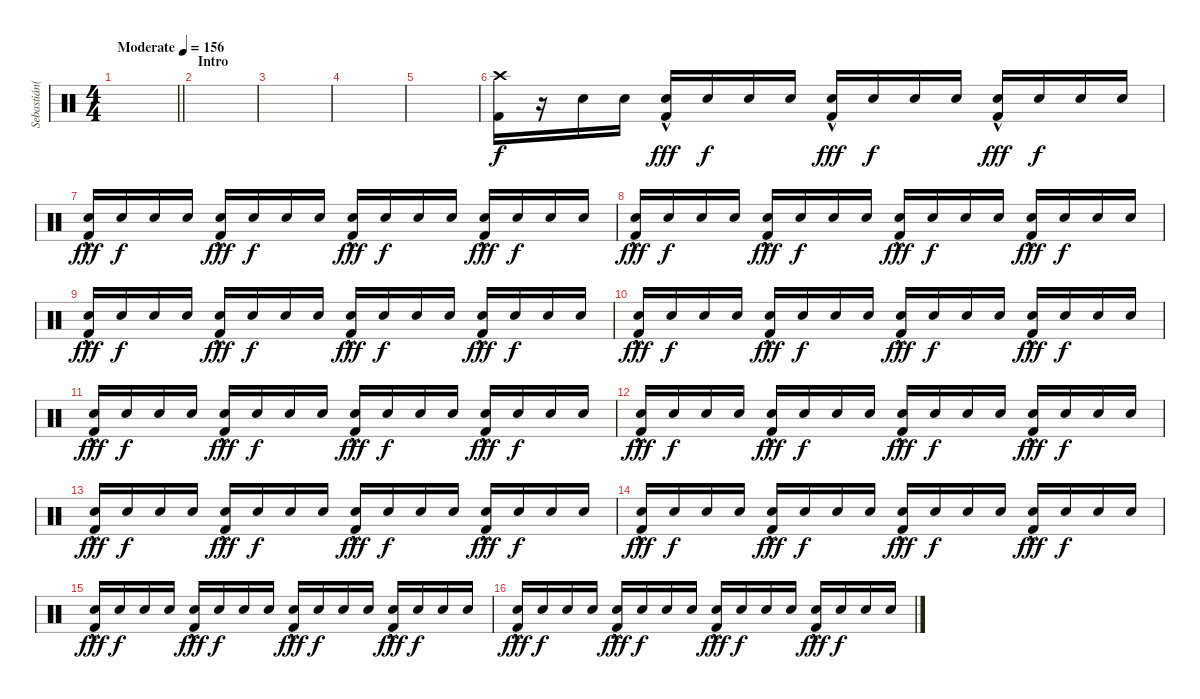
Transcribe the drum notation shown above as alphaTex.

\track ("Sebastián(Percusión)" "Sebastián(") {instrument percussion}
\staff {score}
\articulation defaults
\ts (4 4)
\tempo (156 "Moderate")
\clef neutral
\barLineRight lightlight
\ks c
|
\section ("" "Intro")
|
|
|
|
("Crash high (hit)" "Kick (hit) 2").16 r.16 "Electric Snare (hit)".16 "Electric Snare (hit)".16 ("Electric Snare (hit)"{hac} "Kick (hit) 2").16{dy fff} "Electric Snare (hit)".16{dy f} "Electric Snare (hit)".16 "Electric Snare (hit)".16 ("Electric Snare (hit)"{hac} "Kick (hit) 2").16{dy fff} "Electric Snare (hit)".16{dy f} "Electric Snare (hit)".16 "Electric Snare (hit)".16 ("Electric Snare (hit)"{hac} "Kick (hit) 2").16{dy fff} "Electric Snare (hit)".16{dy f} "Electric Snare (hit)".16 "Electric Snare (hit)".16 |
("Electric Snare (hit)"{hac} "Kick (hit) 2").16{dy fff} "Electric Snare (hit)".16{dy f} "Electric Snare (hit)".16 "Electric Snare (hit)".16 ("Electric Snare (hit)"{hac} "Kick (hit) 2").16{dy fff} "Electric Snare (hit)".16{dy f} "Electric Snare (hit)".16 "Electric Snare (hit)".16 ("Electric Snare (hit)"{hac} "Kick (hit) 2").16{dy fff} "Electric Snare (hit)".16{dy f} "Electric Snare (hit)".16 "Electric Snare (hit)".16 ("Electric Snare (hit)"{hac} "Kick (hit) 2").16{dy fff} "Electric Snare (hit)".16{dy f} "Electric Snare (hit)".16 "Electric Snare (hit)".16 |
("Electric Snare (hit)"{hac} "Kick (hit) 2").16{dy fff} "Electric Snare (hit)".16{dy f} "Electric Snare (hit)".16 "Electric Snare (hit)".16 ("Electric Snare (hit)"{hac} "Kick (hit) 2").16{dy fff} "Electric Snare (hit)".16{dy f} "Electric Snare (hit)".16 "Electric Snare (hit)".16 ("Electric Snare (hit)"{hac} "Kick (hit) 2").16{dy fff} "Electric Snare (hit)".16{dy f} "Electric Snare (hit)".16 "Electric Snare (hit)".16 ("Electric Snare (hit)"{hac} "Kick (hit) 2").16{dy fff} "Electric Snare (hit)".16{dy f} "Electric Snare (hit)".16 "Electric Snare (hit)".16 |
("Electric Snare (hit)"{hac} "Kick (hit) 2").16{dy fff} "Electric Snare (hit)".16{dy f} "Electric Snare (hit)".16 "Electric Snare (hit)".16 ("Electric Snare (hit)"{hac} "Kick (hit) 2").16{dy fff} "Electric Snare (hit)".16{dy f} "Electric Snare (hit)".16 "Electric Snare (hit)".16 ("Electric Snare (hit)"{hac} "Kick (hit) 2").16{dy fff} "Electric Snare (hit)".16{dy f} "Electric Snare (hit)".16 "Electric Snare (hit)".16 ("Electric Snare (hit)"{hac} "Kick (hit) 2").16{dy fff} "Electric Snare (hit)".16{dy f} "Electric Snare (hit)".16 "Electric Snare (hit)".16 |
("Electric Snare (hit)"{hac} "Kick (hit) 2").16{dy fff} "Electric Snare (hit)".16{dy f} "Electric Snare (hit)".16 "Electric Snare (hit)".16 ("Electric Snare (hit)"{hac} "Kick (hit) 2").16{dy fff} "Electric Snare (hit)".16{dy f} "Electric Snare (hit)".16 "Electric Snare (hit)".16 ("Electric Snare (hit)"{hac} "Kick (hit) 2").16{dy fff} "Electric Snare (hit)".16{dy f} "Electric Snare (hit)".16 "Electric Snare (hit)".16 ("Electric Snare (hit)"{hac} "Kick (hit) 2").16{dy fff} "Electric Snare (hit)".16{dy f} "Electric Snare (hit)".16 "Electric Snare (hit)".16 |
("Electric Snare (hit)"{hac} "Kick (hit) 2").16{dy fff} "Electric Snare (hit)".16{dy f} "Electric Snare (hit)".16 "Electric Snare (hit)".16 ("Electric Snare (hit)"{hac} "Kick (hit) 2").16{dy fff} "Electric Snare (hit)".16{dy f} "Electric Snare (hit)".16 "Electric Snare (hit)".16 ("Electric Snare (hit)"{hac} "Kick (hit) 2").16{dy fff} "Electric Snare (hit)".16{dy f} "Electric Snare (hit)".16 "Electric Snare (hit)".16 ("Electric Snare (hit)"{hac} "Kick (hit) 2").16{dy fff} "Electric Snare (hit)".16{dy f} "Electric Snare (hit)".16 "Electric Snare (hit)".16 |
("Electric Snare (hit)"{hac} "Kick (hit) 2").16{dy fff} "Electric Snare (hit)".16{dy f} "Electric Snare (hit)".16 "Electric Snare (hit)".16 ("Electric Snare (hit)"{hac} "Kick (hit) 2").16{dy fff} "Electric Snare (hit)".16{dy f} "Electric Snare (hit)".16 "Electric Snare (hit)".16 ("Electric Snare (hit)"{hac} "Kick (hit) 2").16{dy fff} "Electric Snare (hit)".16{dy f} "Electric Snare (hit)".16 "Electric Snare (hit)".16 ("Electric Snare (hit)"{hac} "Kick (hit) 2").16{dy fff} "Electric Snare (hit)".16{dy f} "Electric Snare (hit)".16 "Electric Snare (hit)".16 |
("Electric Snare (hit)"{hac} "Kick (hit) 2").16{dy fff} "Electric Snare (hit)".16{dy f} "Electric Snare (hit)".16 "Electric Snare (hit)".16 ("Electric Snare (hit)"{hac} "Kick (hit) 2").16{dy fff} "Electric Snare (hit)".16{dy f} "Electric Snare (hit)".16 "Electric Snare (hit)".16 ("Electric Snare (hit)"{hac} "Kick (hit) 2").16{dy fff} "Electric Snare (hit)".16{dy f} "Electric Snare (hit)".16 "Electric Snare (hit)".16 ("Electric Snare (hit)"{hac} "Kick (hit) 2").16{dy fff} "Electric Snare (hit)".16{dy f} "Electric Snare (hit)".16 "Electric Snare (hit)".16 |
("Electric Snare (hit)"{hac} "Kick (hit) 2").16{dy fff} "Electric Snare (hit)".16{dy f} "Electric Snare (hit)".16 "Electric Snare (hit)".16 ("Electric Snare (hit)"{hac} "Kick (hit) 2").16{dy fff} "Electric Snare (hit)".16{dy f} "Electric Snare (hit)".16 "Electric Snare (hit)".16 ("Electric Snare (hit)"{hac} "Kick (hit) 2").16{dy fff} "Electric Snare (hit)".16{dy f} "Electric Snare (hit)".16 "Electric Snare (hit)".16 ("Electric Snare (hit)"{hac} "Kick (hit) 2").16{dy fff} "Electric Snare (hit)".16{dy f} "Electric Snare (hit)".16 "Electric Snare (hit)".16 |
("Electric Snare (hit)"{hac} "Kick (hit) 2").16{dy fff} "Electric Snare (hit)".16{dy f} "Electric Snare (hit)".16 "Electric Snare (hit)".16 ("Electric Snare (hit)"{hac} "Kick (hit) 2").16{dy fff} "Electric Snare (hit)".16{dy f} "Electric Snare (hit)".16 "Electric Snare (hit)".16 ("Electric Snare (hit)"{hac} "Kick (hit) 2").16{dy fff} "Electric Snare (hit)".16{dy f} "Electric Snare (hit)".16 "Electric Snare (hit)".16 ("Electric Snare (hit)"{hac} "Kick (hit) 2").16{dy fff} "Electric Snare (hit)".16{dy f} "Electric Snare (hit)".16 "Electric Snare (hit)".16 |
("Electric Snare (hit)"{hac} "Kick (hit) 2").16{dy fff} "Electric Snare (hit)".16{dy f} "Electric Snare (hit)".16 "Electric Snare (hit)".16 ("Electric Snare (hit)"{hac} "Kick (hit) 2").16{dy fff} "Electric Snare (hit)".16{dy f} "Electric Snare (hit)".16 "Electric Snare (hit)".16 ("Electric Snare (hit)"{hac} "Kick (hit) 2").16{dy fff} "Electric Snare (hit)".16{dy f} "Electric Snare (hit)".16 "Electric Snare (hit)".16 ("Electric Snare (hit)"{hac} "Kick (hit) 2").16{dy fff} "Electric Snare (hit)".16{dy f} "Electric Snare (hit)".16 "Electric Snare (hit)".16
